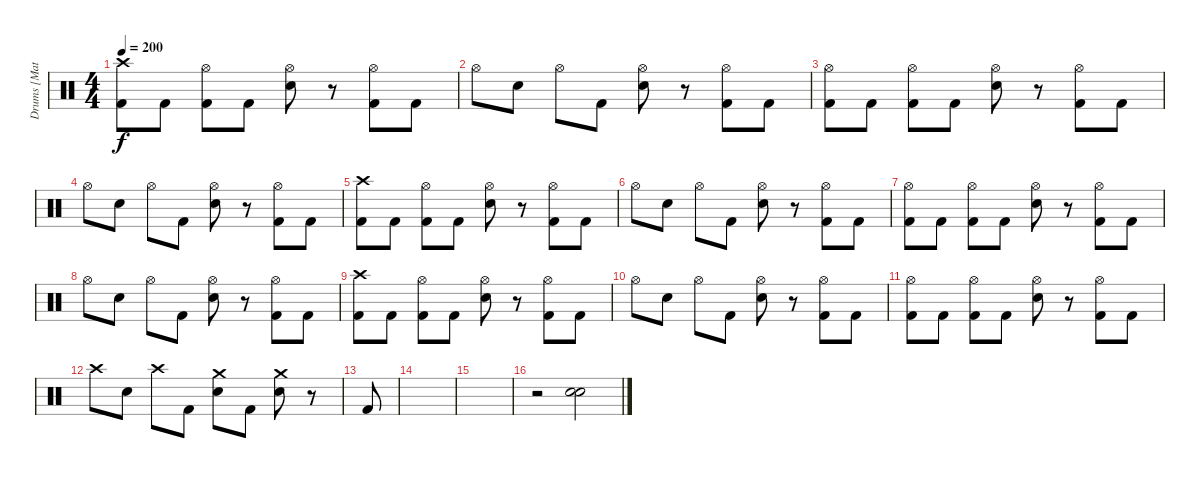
\track ("Drums [Matt]" "Drums [Mat") {instrument percussion}
\staff {score}
\articulation defaults
\ts (4 4)
\tempo 200
\clef neutral
\ks c
("Crash high (hit)" "Kick (hit) 2").8{dy f} "Kick (hit) 2".8 ("Hi-Hat (open)" "Kick (hit) 2").8 "Kick (hit) 2".8 ("Hi-Hat (open)" "Electric Snare (hit)").8 r.8 ("Hi-Hat (open)" "Kick (hit) 2").8 "Kick (hit) 2".8 |
"Hi-Hat (open)".8 "Electric Snare (hit)".8 "Hi-Hat (open)".8 "Kick (hit) 2".8 ("Hi-Hat (open)" "Electric Snare (hit)").8 r.8 ("Hi-Hat (open)" "Kick (hit) 2").8 "Kick (hit) 2".8 |
("Hi-Hat (open)" "Kick (hit) 2").8 "Kick (hit) 2".8 ("Hi-Hat (open)" "Kick (hit) 2").8 "Kick (hit) 2".8 ("Hi-Hat (open)" "Electric Snare (hit)").8 r.8 ("Hi-Hat (open)" "Kick (hit) 2").8 "Kick (hit) 2".8 |
"Hi-Hat (open)".8 "Electric Snare (hit)".8 "Hi-Hat (open)".8 "Kick (hit) 2".8 ("Hi-Hat (open)" "Electric Snare (hit)").8 r.8 ("Hi-Hat (open)" "Kick (hit) 2").8 "Kick (hit) 2".8 |
("Crash high (hit)" "Kick (hit) 2").8 "Kick (hit) 2".8 ("Hi-Hat (open)" "Kick (hit) 2").8 "Kick (hit) 2".8 ("Hi-Hat (open)" "Electric Snare (hit)").8 r.8 ("Hi-Hat (open)" "Kick (hit) 2").8 "Kick (hit) 2".8 |
"Hi-Hat (open)".8 "Electric Snare (hit)".8 "Hi-Hat (open)".8 "Kick (hit) 2".8 ("Hi-Hat (open)" "Electric Snare (hit)").8 r.8 ("Hi-Hat (open)" "Kick (hit) 2").8 "Kick (hit) 2".8 |
("Hi-Hat (open)" "Kick (hit) 2").8 "Kick (hit) 2".8 ("Hi-Hat (open)" "Kick (hit) 2").8 "Kick (hit) 2".8 ("Hi-Hat (open)" "Electric Snare (hit)").8 r.8 ("Hi-Hat (open)" "Kick (hit) 2").8 "Kick (hit) 2".8 |
"Hi-Hat (open)".8 "Electric Snare (hit)".8 "Hi-Hat (open)".8 "Kick (hit) 2".8 ("Hi-Hat (open)" "Electric Snare (hit)").8 r.8 ("Hi-Hat (open)" "Kick (hit) 2").8 "Kick (hit) 2".8 |
("Crash high (hit)" "Kick (hit) 2").8 "Kick (hit) 2".8 ("Hi-Hat (open)" "Kick (hit) 2").8 "Kick (hit) 2".8 ("Hi-Hat (open)" "Electric Snare (hit)").8 r.8 ("Hi-Hat (open)" "Kick (hit) 2").8 "Kick (hit) 2".8 |
"Hi-Hat (open)".8 "Electric Snare (hit)".8 "Hi-Hat (open)".8 "Kick (hit) 2".8 ("Hi-Hat (open)" "Electric Snare (hit)").8 r.8 ("Hi-Hat (open)" "Kick (hit) 2").8 "Kick (hit) 2".8 |
("Hi-Hat (open)" "Kick (hit) 2").8 "Kick (hit) 2".8 ("Hi-Hat (open)" "Kick (hit) 2").8 "Kick (hit) 2".8 ("Hi-Hat (open)" "Electric Snare (hit)").8 r.8 ("Hi-Hat (open)" "Kick (hit) 2").8 "Kick (hit) 2".8 |
"Crash high (hit)".8 "Electric Snare (hit)".8 "Crash high (hit)".8 "Kick (hit) 2".8 ("Crash medium (hit)" "Electric Snare (hit)").8 "Kick (hit) 2".8 ("Crash medium (hit)" "Electric Snare (hit)").8 r.8 |
"Kick (hit) 2".8 |
|
|
r.2 ("Electric Snare (hit)" "Snare (hit) 2").2
